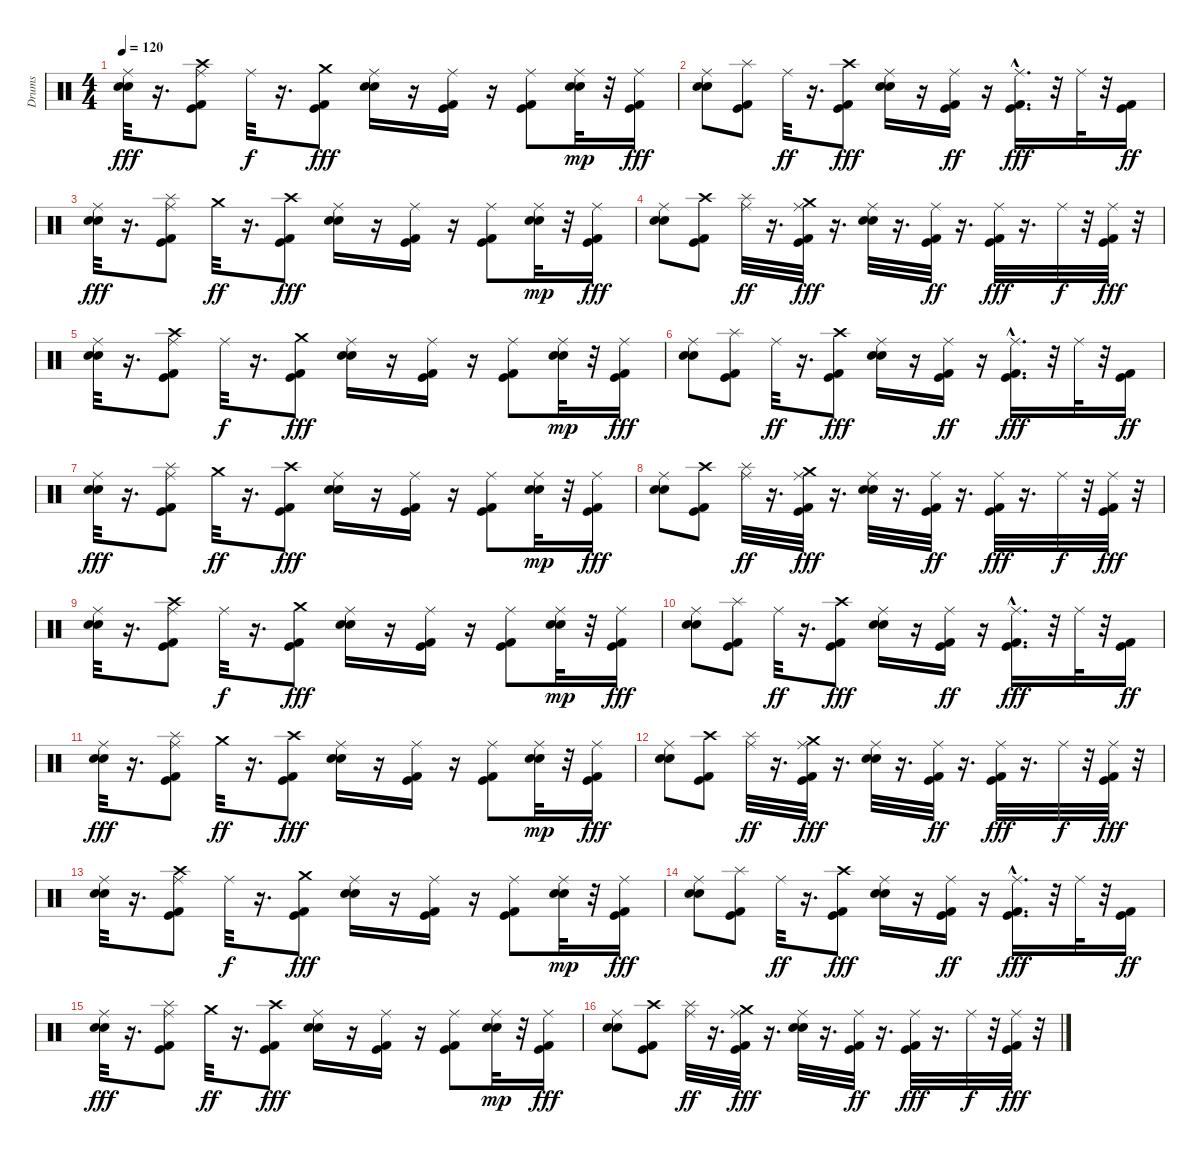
\track ("Drums" "Drums") {instrument percussion}
\staff {score}
\articulation defaults
\ts (4 4)
\tempo 120
\clef neutral
\ks c
("Ride (middle)" "Snare (hit) 2" "Electric Snare (hit)").32{dy fff} r.16{d} ("Ride (middle)" "Crash high (hit)" "Kick (hit) 2" "Kick (hit)").8 "Ride (middle)".32{dy f} r.16{d} ("Crash medium (hit)" "Kick (hit) 2" "Kick (hit)").8{dy fff} ("Ride (middle)" "Electric Snare (hit)" "Snare (hit) 2").16 r.16 ("Ride (middle)" "Kick (hit) 2" "Kick (hit)").16 r.16 ("Ride (middle)" "Kick (hit) 2" "Kick (hit)").8 ("Ride (middle)" "Snare (hit) 2" "Electric Snare (hit)").32{dy mp} r.32 ("Ride (middle)" "Kick (hit) 2" "Kick (hit)").16{dy fff} |
("Ride (middle)" "Snare (hit) 2" "Electric Snare (hit)").8 ("Splash (hit)" "Kick (hit) 2" "Kick (hit)").8 "Ride (middle)".32{dy ff} r.16{d} ("Crash high (hit)" "Kick (hit)" "Kick (hit) 2").8{dy fff} ("Ride (middle)" "Electric Snare (hit)" "Snare (hit) 2").16 r.16 ("Ride (middle)" "Kick (hit) 2" "Kick (hit)").16{dy ff} r.16 ("Ride (middle)" "Kick (hit) 2"{hac} "Kick (hit)"{hac}).16{d dy fff} r.32 "Ride (middle)".32 r.32 ("Kick (hit)" "Kick (hit) 2").16{dy ff} |
("Ride (middle)" "Snare (hit) 2" "Electric Snare (hit)").32{dy fff} r.16{d} ("Splash (hit)" "Ride (middle)" "Kick (hit) 2" "Kick (hit)").8 "Crash medium (hit)".32{dy ff} r.16{d} ("Crash high (hit)" "Kick (hit) 2" "Kick (hit)").8{dy fff} ("Ride (middle)" "Electric Snare (hit)" "Snare (hit) 2").16 r.16 ("Ride (middle)" "Kick (hit) 2" "Kick (hit)").16 r.16 ("Ride (middle)" "Kick (hit) 2" "Kick (hit)").8 ("Ride (middle)" "Snare (hit) 2" "Electric Snare (hit)").32{dy mp} r.32 ("Ride (middle)" "Kick (hit) 2" "Kick (hit)").16{dy fff} |
("Ride (middle)" "Snare (hit) 2" "Electric Snare (hit)").8 ("Crash high (hit)" "Kick (hit) 2" "Kick (hit)").8 ("Splash (hit)" "Ride (middle)").32{dy ff} r.16{d} ("Crash medium (hit)" "Ride (middle)" "Kick (hit) 2" "Kick (hit)").32{dy fff} r.16{d} ("Ride (middle)" "Electric Snare (hit)" "Snare (hit) 2").32 r.16{d} ("Ride (middle)" "Kick (hit) 2" "Kick (hit)").32{dy ff} r.16{d} ("Ride (middle)" "Kick (hit) 2" "Kick (hit)").32{dy fff} r.16{d} "Ride (middle)".32{dy f} r.32 ("Ride (middle)" "Kick (hit) 2" "Kick (hit)").32{dy fff} r.32 |
("Ride (middle)" "Snare (hit) 2" "Electric Snare (hit)").32 r.16{d} ("Ride (middle)" "Crash high (hit)" "Kick (hit) 2" "Kick (hit)").8 "Ride (middle)".32{dy f} r.16{d} ("Crash medium (hit)" "Kick (hit) 2" "Kick (hit)").8{dy fff} ("Ride (middle)" "Electric Snare (hit)" "Snare (hit) 2").16 r.16 ("Ride (middle)" "Kick (hit) 2" "Kick (hit)").16 r.16 ("Ride (middle)" "Kick (hit) 2" "Kick (hit)").8 ("Ride (middle)" "Snare (hit) 2" "Electric Snare (hit)").32{dy mp} r.32 ("Ride (middle)" "Kick (hit) 2" "Kick (hit)").16{dy fff} |
("Ride (middle)" "Snare (hit) 2" "Electric Snare (hit)").8 ("Splash (hit)" "Kick (hit) 2" "Kick (hit)").8 "Ride (middle)".32{dy ff} r.16{d} ("Crash high (hit)" "Kick (hit)" "Kick (hit) 2").8{dy fff} ("Ride (middle)" "Electric Snare (hit)" "Snare (hit) 2").16 r.16 ("Ride (middle)" "Kick (hit) 2" "Kick (hit)").16{dy ff} r.16 ("Ride (middle)" "Kick (hit) 2"{hac} "Kick (hit)"{hac}).16{d dy fff} r.32 "Ride (middle)".32 r.32 ("Kick (hit)" "Kick (hit) 2").16{dy ff} |
("Ride (middle)" "Snare (hit) 2" "Electric Snare (hit)").32{dy fff} r.16{d} ("Splash (hit)" "Ride (middle)" "Kick (hit) 2" "Kick (hit)").8 "Crash medium (hit)".32{dy ff} r.16{d} ("Crash high (hit)" "Kick (hit) 2" "Kick (hit)").8{dy fff} ("Ride (middle)" "Electric Snare (hit)" "Snare (hit) 2").16 r.16 ("Ride (middle)" "Kick (hit) 2" "Kick (hit)").16 r.16 ("Ride (middle)" "Kick (hit) 2" "Kick (hit)").8 ("Ride (middle)" "Snare (hit) 2" "Electric Snare (hit)").32{dy mp} r.32 ("Ride (middle)" "Kick (hit) 2" "Kick (hit)").16{dy fff} |
("Ride (middle)" "Snare (hit) 2" "Electric Snare (hit)").8 ("Crash high (hit)" "Kick (hit) 2" "Kick (hit)").8 ("Splash (hit)" "Ride (middle)").32{dy ff} r.16{d} ("Crash medium (hit)" "Ride (middle)" "Kick (hit) 2" "Kick (hit)").32{dy fff} r.16{d} ("Ride (middle)" "Electric Snare (hit)" "Snare (hit) 2").32 r.16{d} ("Ride (middle)" "Kick (hit) 2" "Kick (hit)").32{dy ff} r.16{d} ("Ride (middle)" "Kick (hit) 2" "Kick (hit)").32{dy fff} r.16{d} "Ride (middle)".32{dy f} r.32 ("Ride (middle)" "Kick (hit) 2" "Kick (hit)").32{dy fff} r.32 |
("Ride (middle)" "Snare (hit) 2" "Electric Snare (hit)").32 r.16{d} ("Ride (middle)" "Crash high (hit)" "Kick (hit) 2" "Kick (hit)").8 "Ride (middle)".32{dy f} r.16{d} ("Crash medium (hit)" "Kick (hit) 2" "Kick (hit)").8{dy fff} ("Ride (middle)" "Electric Snare (hit)" "Snare (hit) 2").16 r.16 ("Ride (middle)" "Kick (hit) 2" "Kick (hit)").16 r.16 ("Ride (middle)" "Kick (hit) 2" "Kick (hit)").8 ("Ride (middle)" "Snare (hit) 2" "Electric Snare (hit)").32{dy mp} r.32 ("Ride (middle)" "Kick (hit) 2" "Kick (hit)").16{dy fff} |
("Ride (middle)" "Snare (hit) 2" "Electric Snare (hit)").8 ("Splash (hit)" "Kick (hit) 2" "Kick (hit)").8 "Ride (middle)".32{dy ff} r.16{d} ("Crash high (hit)" "Kick (hit)" "Kick (hit) 2").8{dy fff} ("Ride (middle)" "Electric Snare (hit)" "Snare (hit) 2").16 r.16 ("Ride (middle)" "Kick (hit) 2" "Kick (hit)").16{dy ff} r.16 ("Ride (middle)" "Kick (hit) 2"{hac} "Kick (hit)"{hac}).16{d dy fff} r.32 "Ride (middle)".32 r.32 ("Kick (hit)" "Kick (hit) 2").16{dy ff} |
("Ride (middle)" "Snare (hit) 2" "Electric Snare (hit)").32{dy fff} r.16{d} ("Splash (hit)" "Ride (middle)" "Kick (hit) 2" "Kick (hit)").8 "Crash medium (hit)".32{dy ff} r.16{d} ("Crash high (hit)" "Kick (hit) 2" "Kick (hit)").8{dy fff} ("Ride (middle)" "Electric Snare (hit)" "Snare (hit) 2").16 r.16 ("Ride (middle)" "Kick (hit) 2" "Kick (hit)").16 r.16 ("Ride (middle)" "Kick (hit) 2" "Kick (hit)").8 ("Ride (middle)" "Snare (hit) 2" "Electric Snare (hit)").32{dy mp} r.32 ("Ride (middle)" "Kick (hit) 2" "Kick (hit)").16{dy fff} |
("Ride (middle)" "Snare (hit) 2" "Electric Snare (hit)").8 ("Crash high (hit)" "Kick (hit) 2" "Kick (hit)").8 ("Splash (hit)" "Ride (middle)").32{dy ff} r.16{d} ("Crash medium (hit)" "Ride (middle)" "Kick (hit) 2" "Kick (hit)").32{dy fff} r.16{d} ("Ride (middle)" "Electric Snare (hit)" "Snare (hit) 2").32 r.16{d} ("Ride (middle)" "Kick (hit) 2" "Kick (hit)").32{dy ff} r.16{d} ("Ride (middle)" "Kick (hit) 2" "Kick (hit)").32{dy fff} r.16{d} "Ride (middle)".32{dy f} r.32 ("Ride (middle)" "Kick (hit) 2" "Kick (hit)").32{dy fff} r.32 |
("Ride (middle)" "Snare (hit) 2" "Electric Snare (hit)").32 r.16{d} ("Ride (middle)" "Crash high (hit)" "Kick (hit) 2" "Kick (hit)").8 "Ride (middle)".32{dy f} r.16{d} ("Crash medium (hit)" "Kick (hit) 2" "Kick (hit)").8{dy fff} ("Ride (middle)" "Electric Snare (hit)" "Snare (hit) 2").16 r.16 ("Ride (middle)" "Kick (hit) 2" "Kick (hit)").16 r.16 ("Ride (middle)" "Kick (hit) 2" "Kick (hit)").8 ("Ride (middle)" "Snare (hit) 2" "Electric Snare (hit)").32{dy mp} r.32 ("Ride (middle)" "Kick (hit) 2" "Kick (hit)").16{dy fff} |
("Ride (middle)" "Snare (hit) 2" "Electric Snare (hit)").8 ("Splash (hit)" "Kick (hit) 2" "Kick (hit)").8 "Ride (middle)".32{dy ff} r.16{d} ("Crash high (hit)" "Kick (hit)" "Kick (hit) 2").8{dy fff} ("Ride (middle)" "Electric Snare (hit)" "Snare (hit) 2").16 r.16 ("Ride (middle)" "Kick (hit) 2" "Kick (hit)").16{dy ff} r.16 ("Ride (middle)" "Kick (hit) 2"{hac} "Kick (hit)"{hac}).16{d dy fff} r.32 "Ride (middle)".32 r.32 ("Kick (hit)" "Kick (hit) 2").16{dy ff} |
("Ride (middle)" "Snare (hit) 2" "Electric Snare (hit)").32{dy fff} r.16{d} ("Splash (hit)" "Ride (middle)" "Kick (hit) 2" "Kick (hit)").8 "Crash medium (hit)".32{dy ff} r.16{d} ("Crash high (hit)" "Kick (hit) 2" "Kick (hit)").8{dy fff} ("Ride (middle)" "Electric Snare (hit)" "Snare (hit) 2").16 r.16 ("Ride (middle)" "Kick (hit) 2" "Kick (hit)").16 r.16 ("Ride (middle)" "Kick (hit) 2" "Kick (hit)").8 ("Ride (middle)" "Snare (hit) 2" "Electric Snare (hit)").32{dy mp} r.32 ("Ride (middle)" "Kick (hit) 2" "Kick (hit)").16{dy fff} |
("Ride (middle)" "Snare (hit) 2" "Electric Snare (hit)").8 ("Crash high (hit)" "Kick (hit) 2" "Kick (hit)").8 ("Splash (hit)" "Ride (middle)").32{dy ff} r.16{d} ("Crash medium (hit)" "Ride (middle)" "Kick (hit) 2" "Kick (hit)").32{dy fff} r.16{d} ("Ride (middle)" "Electric Snare (hit)" "Snare (hit) 2").32 r.16{d} ("Ride (middle)" "Kick (hit) 2" "Kick (hit)").32{dy ff} r.16{d} ("Ride (middle)" "Kick (hit) 2" "Kick (hit)").32{dy fff} r.16{d} "Ride (middle)".32{dy f} r.32 ("Ride (middle)" "Kick (hit) 2" "Kick (hit)").32{dy fff} r.32
